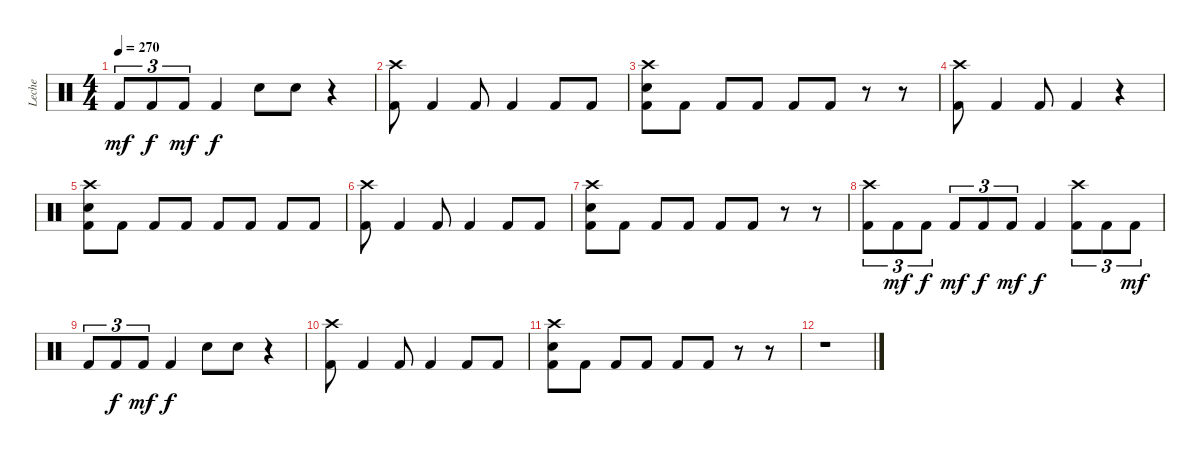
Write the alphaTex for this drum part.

\track ("Leche" "Leche") {instrument percussion}
\staff {score}
\articulation defaults
\ts (4 4)
\tempo 270
\clef neutral
\ks c "Kick (hit) 2".8{tu (3 2) dy mf} "Kick (hit) 2".8{tu (3 2) dy f} "Kick (hit) 2".8{tu (3 2) dy mf} "Kick (hit) 2".4{dy f} "Electric Snare (hit)".8 "Electric Snare (hit)".8
r.4 |
("Crash high (hit)" "Kick (hit) 2").8 "Kick (hit) 2".4 "Kick (hit) 2".8 "Kick (hit) 2".4 "Kick (hit) 2".8 "Kick (hit) 2".8 |
("Crash high (hit)" "Electric Snare (hit)" "Kick (hit) 2").8 "Kick (hit) 2".8 "Kick (hit) 2".8 "Kick (hit) 2".8 "Kick (hit) 2".8 "Kick (hit) 2".8 r.8 r.8 |
("Crash high (hit)" "Kick (hit) 2").8{volume 0} "Kick (hit) 2".4 "Kick (hit) 2".8 "Kick (hit) 2".4 r.4 |
("Crash high (hit)" "Electric Snare (hit)" "Kick (hit) 2").8 "Kick (hit) 2".8 "Kick (hit) 2".8 "Kick (hit) 2".8 "Kick (hit) 2".8 "Kick (hit) 2".8 "Kick (hit) 2".8 "Kick (hit) 2".8 |
("Crash high (hit)" "Kick (hit) 2").8 "Kick (hit) 2".4 "Kick (hit) 2".8 "Kick (hit) 2".4 "Kick (hit) 2".8 "Kick (hit) 2".8 |
("Crash high (hit)" "Electric Snare (hit)" "Kick (hit) 2").8 "Kick (hit) 2".8 "Kick (hit) 2".8 "Kick (hit) 2".8 "Kick (hit) 2".8 "Kick (hit) 2".8 r.8 r.8 |
("Crash high (hit)" "Kick (hit) 2").8{tu (3 2)} "Kick (hit) 2".8{tu (3 2) dy mf} "Kick (hit) 2".8{tu (3 2) dy f} "Kick (hit) 2".8{tu (3 2) dy mf} "Kick (hit) 2".8{tu (3 2) dy f} "Kick (hit) 2".8{tu (3 2) dy mf} "Kick (hit) 2".4{dy f} ("Crash high (hit)" "Kick (hit) 2").8{tu (3 2)} "Kick (hit) 2".8{tu (3 2)} "Kick (hit) 2".8{tu (3 2) dy mf} |
"Kick (hit) 2".8{tu (3 2)} "Kick (hit) 2".8{tu (3 2) dy f} "Kick (hit) 2".8{tu (3 2) dy mf} "Kick (hit) 2".4{dy f} "Electric Snare (hit)".8 "Electric Snare (hit)".8 r.4 |
("Crash high (hit)" "Kick (hit) 2").8 "Kick (hit) 2".4 "Kick (hit) 2".8 "Kick (hit) 2".4 "Kick (hit) 2".8 "Kick (hit) 2".8 |
("Crash high (hit)" "Electric Snare (hit)" "Kick (hit) 2").8 "Kick (hit) 2".8 "Kick (hit) 2".8 "Kick (hit) 2".8 "Kick (hit) 2".8 "Kick (hit) 2".8 r.8 r.8 |
r.1
